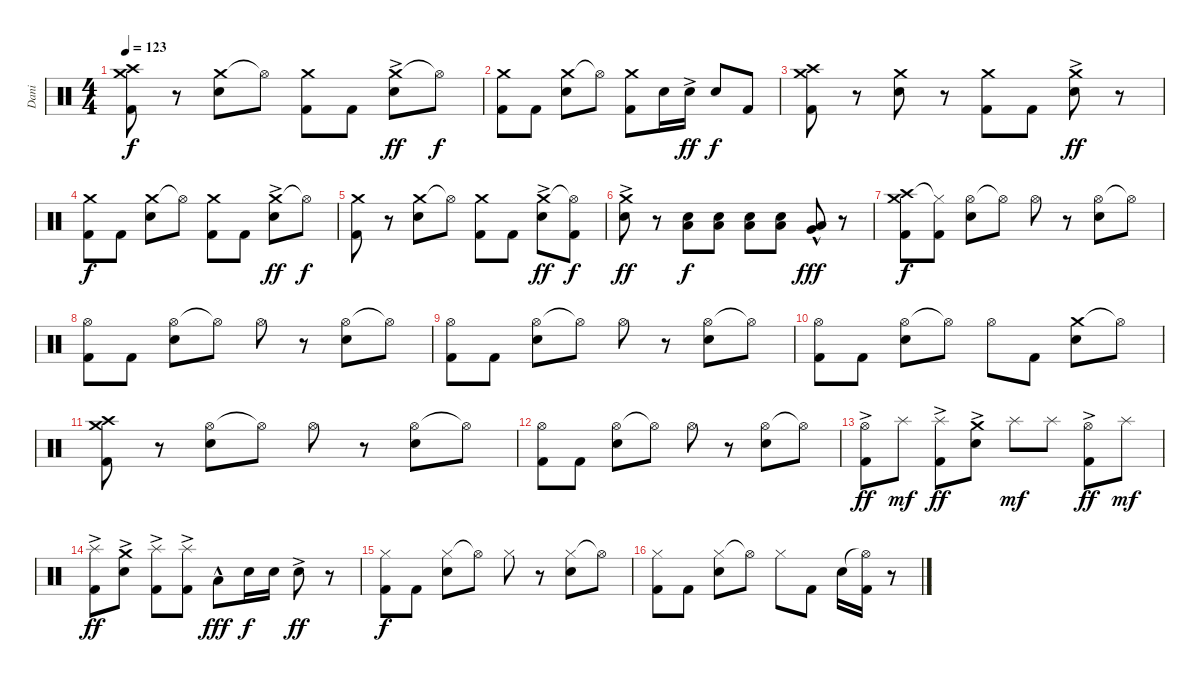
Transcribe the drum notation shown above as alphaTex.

\track ("Dani" "Dani") {instrument percussion}
\staff {score}
\articulation defaults
\ts (4 4)
\tempo 123
\clef neutral
\ks c
("Crash high (hit)" "Crash medium (hit)" "Kick (hit) 2").8{dy f} r.8 ("Crash medium (hit)" "Snare (hit) 2").8 "Hi-Hat (open)"{t}.8 ("Crash medium (hit)" "Kick (hit) 2").8 "Kick (hit) 2".8 ("Crash medium (hit)" "Snare (hit) 2"{ac}).8{dy ff} "Hi-Hat (open)"{t}.8{dy f} |
("Crash medium (hit)" "Kick (hit) 2").8 "Kick (hit) 2".8 ("Crash medium (hit)" "Snare (hit) 2").8 "Hi-Hat (open)"{t}.8 ("Crash medium (hit)" "Kick (hit) 2").8 "Snare (hit) 2".16 "Snare (hit) 2"{ac}.16{dy ff} "Snare (hit) 2".8{dy f} "Kick (hit) 2".8 |
("Crash high (hit)" "Crash medium (hit)" "Kick (hit) 2").8 r.8 ("Crash medium (hit)" "Snare (hit) 2").8 r.8 ("Crash medium (hit)" "Kick (hit) 2").8 "Kick (hit) 2".8 ("Crash medium (hit)" "Snare (hit) 2"{ac}).8{dy ff} r.8 |
("Crash medium (hit)" "Kick (hit) 2").8{dy f} "Kick (hit) 2".8 ("Crash medium (hit)" "Snare (hit) 2").8 "Hi-Hat (open)"{t}.8 ("Crash medium (hit)" "Kick (hit) 2").8 "Kick (hit) 2".8 ("Crash medium (hit)" "Snare (hit) 2"{ac}).8{dy ff} "Hi-Hat (open)"{t}.8{dy f} |
("Crash medium (hit)" "Kick (hit) 2").8 r.8 ("Crash medium (hit)" "Snare (hit) 2").8 "Hi-Hat (open)"{t}.8 ("Crash medium (hit)" "Kick (hit) 2").8 "Kick (hit) 2".8 ("Crash medium (hit)" "Snare (hit) 2"{ac}).8{dy ff} ("Hi-Hat (open)"{t} "Kick (hit) 2").8{dy f} |
("Crash medium (hit)"{ac} "Snare (hit) 2").8{dy ff} r.8 ("Low Floor Tom (hit)" "Snare (hit) 2").8{dy f} ("Low Floor Tom (hit)" "Snare (hit) 2").8 ("Low Floor Tom (hit)" "Snare (hit) 2").8 ("Low Floor Tom (hit)" "Snare (hit) 2").8 ("Low Tom (hit)"{hac} "Very Low Tom (hit)"{hac}).8{dy fff} r.8 |
("Crash high (hit)" "Crash medium (hit)" "Kick (hit) 2").8{dy f} ("Hi-Hat (closed)"{t} "Kick (hit) 2").8 ("Hi-Hat (open)" "Snare (hit) 2").8 "Hi-Hat (open)"{t}.8 "Hi-Hat (open)".8 r.8 ("Hi-Hat (open)" "Snare (hit) 2").8 "Hi-Hat (open)"{t}.8 |
("Hi-Hat (open)" "Kick (hit) 2").8 "Kick (hit) 2".8 ("Hi-Hat (open)" "Snare (hit) 2").8 "Hi-Hat (open)"{t}.8 "Hi-Hat (open)".8 r.8 ("Hi-Hat (open)" "Snare (hit) 2").8 "Hi-Hat (open)"{t}.8 |
("Hi-Hat (open)" "Kick (hit) 2").8 "Kick (hit) 2".8 ("Hi-Hat (open)" "Snare (hit) 2").8 "Hi-Hat (open)"{t}.8 "Hi-Hat (open)".8 r.8 ("Hi-Hat (open)" "Snare (hit) 2").8 "Hi-Hat (open)"{t}.8 |
("Hi-Hat (open)" "Kick (hit) 2").8 "Kick (hit) 2".8 ("Hi-Hat (open)" "Snare (hit) 2").8 "Hi-Hat (open)"{t}.8 "Hi-Hat (open)".8 "Kick (hit) 2".8 ("Crash medium (hit)" "Snare (hit) 2").8 "Hi-Hat (open)"{t}.8 |
("Crash high (hit)" "Crash medium (hit)" "Kick (hit) 2").8 r.8 ("Hi-Hat (open)" "Snare (hit) 2").8 "Hi-Hat (open)"{t}.8 "Hi-Hat (open)".8 r.8 ("Hi-Hat (open)" "Snare (hit) 2").8 "Hi-Hat (open)"{t}.8 |
("Hi-Hat (open)" "Kick (hit) 2").8 "Kick (hit) 2".8 ("Hi-Hat (open)" "Snare (hit) 2").8 "Hi-Hat (open)"{t}.8 "Hi-Hat (open)".8 r.8 ("Hi-Hat (open)" "Snare (hit) 2").8 "Hi-Hat (open)"{t}.8 |
("Hi-Hat (open)"{ac} "Kick (hit) 2"{ac}).8{dy ff} "Splash (hit)".8{dy mf} ("Splash (hit)" "Kick (hit) 2"{ac}).8{dy ff} ("Crash medium (hit)"{ac} "Snare (hit) 2"{ac}).8 "Splash (hit)".8{dy mf} "Splash (hit)".8 ("Hi-Hat (open)"{ac} "Kick (hit) 2"{ac}).8{dy ff} "Splash (hit)".8{dy mf} |
("Splash (hit)" "Kick (hit) 2"{ac}).8{dy ff} ("Crash medium (hit)"{ac} "Snare (hit) 2"{ac}).8 ("Splash (hit)" "Kick (hit) 2"{ac}).8 ("Splash (hit)" "Kick (hit) 2"{ac}).8 "Low Tom (hit)"{hac}.8{dy fff} "Snare (hit) 2".16{dy f} "Snare (hit) 2".16 "Snare (hit) 2"{ac}.8{dy ff} r.8 |
("Hi-Hat (closed)" "Kick (hit) 2").8{dy f} "Kick (hit) 2".8 ("Hi-Hat (closed)" "Snare (hit) 2").8 "Hi-Hat (open)"{t}.8 "Hi-Hat (closed)".8 r.8 ("Hi-Hat (closed)" "Snare (hit) 2").8 "Hi-Hat (open)"{t}.8 |
("Hi-Hat (closed)" "Kick (hit) 2").8 "Kick (hit) 2".8 ("Hi-Hat (closed)" "Snare (hit) 2").8 "Hi-Hat (open)"{t}.8 "Hi-Hat (closed)".8 "Kick (hit) 2".8 "Snare (hit) 2".16 ("Hi-Hat (open)"{t} "Kick (hit) 2").16 r.8
